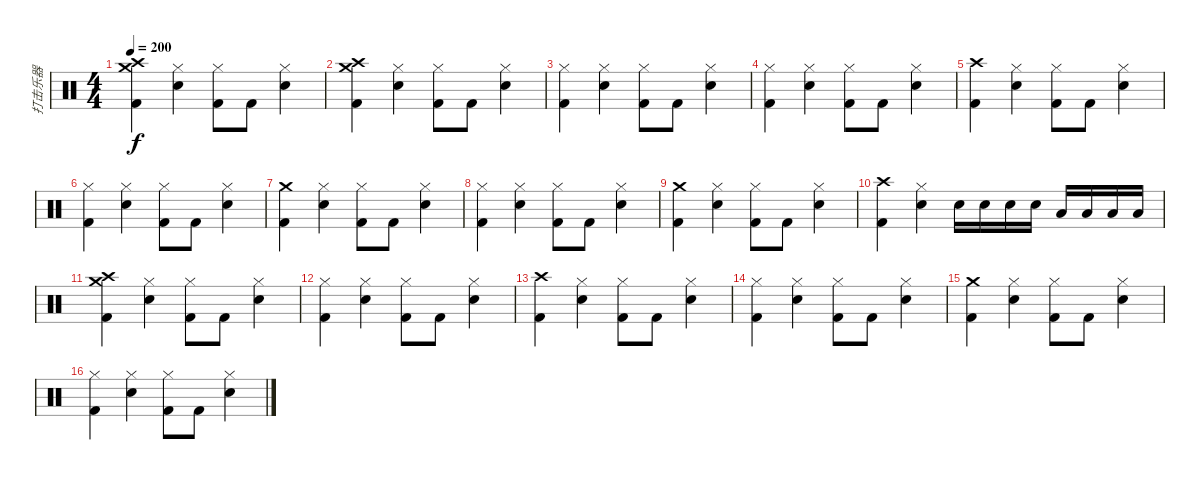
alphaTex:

\track ("打击乐器" "打击乐器") {instrument percussion}
\staff {score}
\articulation defaults
\ts (4 4)
\tempo 200
\clef neutral
\ks c
("Crash medium (hit)" "Crash high (hit)" "Kick (hit) 2").4{dy f} ("Hi-Hat (closed)" "Snare (hit) 2").4 ("Hi-Hat (closed)" "Kick (hit) 2").8 "Kick (hit) 2".8 ("Hi-Hat (closed)" "Snare (hit) 2").4 |
("Crash medium (hit)" "Crash high (hit)" "Kick (hit) 2").4 ("Hi-Hat (closed)" "Snare (hit) 2").4 ("Hi-Hat (closed)" "Kick (hit) 2").8 "Kick (hit) 2".8 ("Hi-Hat (closed)" "Snare (hit) 2").4 |
("Hi-Hat (closed)" "Kick (hit) 2").4 ("Hi-Hat (closed)" "Snare (hit) 2").4 ("Hi-Hat (closed)" "Kick (hit) 2").8 "Kick (hit) 2".8 ("Hi-Hat (closed)" "Snare (hit) 2").4 |
("Hi-Hat (closed)" "Kick (hit) 2").4 ("Hi-Hat (closed)" "Snare (hit) 2").4 ("Hi-Hat (closed)" "Kick (hit) 2").8 "Kick (hit) 2".8 ("Hi-Hat (closed)" "Snare (hit) 2").4 |
("Crash high (hit)" "Kick (hit) 2").4 ("Hi-Hat (closed)" "Snare (hit) 2").4 ("Hi-Hat (closed)" "Kick (hit) 2").8 "Kick (hit) 2".8 ("Hi-Hat (closed)" "Snare (hit) 2").4 |
("Hi-Hat (closed)" "Kick (hit) 2").4 ("Hi-Hat (closed)" "Snare (hit) 2").4 ("Hi-Hat (closed)" "Kick (hit) 2").8 "Kick (hit) 2".8 ("Hi-Hat (closed)" "Snare (hit) 2").4 |
("Crash medium (hit)" "Kick (hit) 2").4 ("Hi-Hat (closed)" "Snare (hit) 2").4 ("Hi-Hat (closed)" "Kick (hit) 2").8 "Kick (hit) 2".8 ("Hi-Hat (closed)" "Snare (hit) 2").4 |
("Hi-Hat (closed)" "Kick (hit) 2").4 ("Hi-Hat (closed)" "Snare (hit) 2").4 ("Hi-Hat (closed)" "Kick (hit) 2").8 "Kick (hit) 2".8 ("Hi-Hat (closed)" "Snare (hit) 2").4 |
("Crash medium (hit)" "Kick (hit) 2").4 ("Hi-Hat (closed)" "Snare (hit) 2").4 ("Hi-Hat (closed)" "Kick (hit) 2").8 "Kick (hit) 2".8 ("Hi-Hat (closed)" "Snare (hit) 2").4 |
("Crash high (hit)" "Kick (hit) 2").4 ("Hi-Hat (closed)" "Snare (hit) 2").4 "Snare (hit) 2".16 "Snare (hit) 2".16 "Snare (hit) 2".16 "Snare (hit) 2".16 "Low Floor Tom (hit)".16 "Low Floor Tom (hit)".16 "Low Tom (hit)".16 "Low Tom (hit)".16 |
("Crash medium (hit)" "Crash high (hit)" "Kick (hit) 2").4 ("Hi-Hat (closed)" "Snare (hit) 2").4 ("Hi-Hat (closed)" "Kick (hit) 2").8 "Kick (hit) 2".8 ("Hi-Hat (closed)" "Snare (hit) 2").4 |
("Hi-Hat (closed)" "Kick (hit) 2").4 ("Hi-Hat (closed)" "Snare (hit) 2").4 ("Hi-Hat (closed)" "Kick (hit) 2").8 "Kick (hit) 2".8 ("Hi-Hat (closed)" "Snare (hit) 2").4 |
("Crash high (hit)" "Kick (hit) 2").4 ("Hi-Hat (closed)" "Snare (hit) 2").4 ("Hi-Hat (closed)" "Kick (hit) 2").8 "Kick (hit) 2".8 ("Hi-Hat (closed)" "Snare (hit) 2").4 |
("Hi-Hat (closed)" "Kick (hit) 2").4 ("Hi-Hat (closed)" "Snare (hit) 2").4 ("Hi-Hat (closed)" "Kick (hit) 2").8 "Kick (hit) 2".8 ("Hi-Hat (closed)" "Snare (hit) 2").4 |
("Crash medium (hit)" "Kick (hit) 2").4 ("Hi-Hat (closed)" "Snare (hit) 2").4 ("Hi-Hat (closed)" "Kick (hit) 2").8 "Kick (hit) 2".8 ("Hi-Hat (closed)" "Snare (hit) 2").4 |
("Hi-Hat (closed)" "Kick (hit) 2").4 ("Hi-Hat (closed)" "Snare (hit) 2").4 ("Hi-Hat (closed)" "Kick (hit) 2").8 "Kick (hit) 2".8 ("Hi-Hat (closed)" "Snare (hit) 2").4
